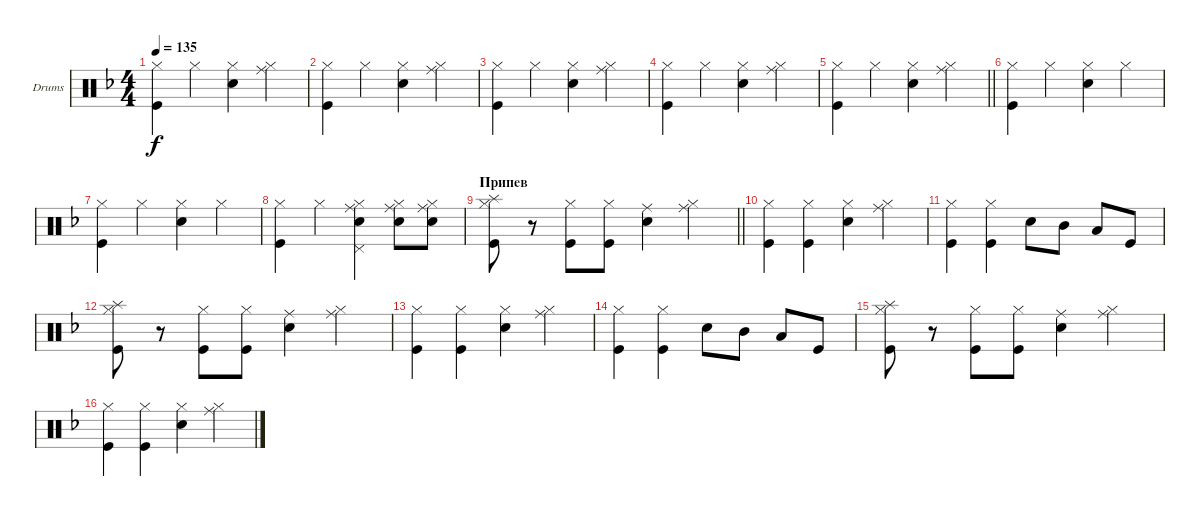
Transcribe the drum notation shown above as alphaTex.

\bracketExtendMode groupsimilarinstruments
\firstSystemTrackNameOrientation horizontal
\otherSystemsTrackNameOrientation horizontal
\track ("Drumkitover" "Drums") {instrument percussion}
\staff {score}
\articulation defaults
\ts (4 4)
\tempo 135
\clef neutral
\scale
0.333333
\ks dminor
("Kick (hit)" "Hi-Hat (closed)").4{dy f} "Hi-Hat (closed)".4 ("Snare (hit) 2" "Hi-Hat (closed)").4 ("Hi-Hat (closed)" "Ride (middle)").4 |
\scale
0.333333 ("Kick (hit)" "Hi-Hat (closed)").4 "Hi-Hat (closed)".4 ("Snare (hit) 2" "Hi-Hat (closed)").4 ("Hi-Hat (closed)" "Ride (middle)").4 |
\scale
0.333333 ("Kick (hit)" "Hi-Hat (closed)").4 "Hi-Hat (closed)".4 ("Snare (hit) 2" "Hi-Hat (closed)").4 ("Hi-Hat (closed)" "Ride (middle)").4 |
\scale
0.333333 ("Kick (hit)" "Hi-Hat (closed)").4 "Hi-Hat (closed)".4 ("Snare (hit) 2" "Hi-Hat (closed)").4 ("Hi-Hat (closed)" "Ride (middle)").4 |
\scale
0.333333
\barLineRight lightlight
("Kick (hit)" "Hi-Hat (closed)").4 "Hi-Hat (closed)".4 ("Snare (hit) 2" "Hi-Hat (closed)").4 ("Hi-Hat (closed)" "Ride (middle)").4 |
\scale
0.333333 ("Kick (hit)" "Hi-Hat (closed)").4 "Hi-Hat (closed)".4 ("Snare (hit) 2" "Hi-Hat (closed)").4 "Hi-Hat (closed)".4 |
\scale
0.333333 ("Kick (hit)" "Hi-Hat (closed)").4 "Hi-Hat (closed)".4 ("Snare (hit) 2" "Hi-Hat (closed)").4 "Hi-Hat (closed)".4 |
\scale
0.333333 ("Kick (hit)" "Hi-Hat (closed)").4 "Hi-Hat (closed)".4 ("Ride (middle)" "Snare (hit) 2" "Hi-Hat (closed)" "Pedal Hi-Hat (hit)").4 ("Hi-Hat (closed)" "Snare (hit) 2" "Ride (middle)").8 ("Hi-Hat (closed)" "Snare (hit) 2" "Ride (middle)").8 |
\section ("" "Припев")
\scale
0.333333
\barLineRight lightlight
("Hi-Hat (closed)" "Kick (hit)" "Splash (hit)").8 r.8 ("Hi-Hat (closed)" "Kick (hit)").8 ("Hi-Hat (closed)" "Kick (hit)").8 ("Snare (hit) 2" "Ride (middle)").4 ("Hi-Hat (closed)" "Ride (middle)").4 |
\scale
0.333333 ("Hi-Hat (closed)" "Kick (hit)").4 ("Hi-Hat (closed)" "Kick (hit)").4 ("Snare (hit) 2" "Hi-Hat (closed)").4 ("Hi-Hat (closed)" "Ride (middle)").4 |
\scale
0.333333 ("Hi-Hat (closed)" "Kick (hit)").4 ("Hi-Hat (closed)" "Kick (hit)").4 "Snare (hit) 2".8 "Mid Tom (hit)".8 "Low Tom (hit)".8 "Kick (hit)".8 |
\scale
0.333333 ("Hi-Hat (closed)" "Kick (hit)" "Splash (hit)").8 r.8 ("Hi-Hat (closed)" "Kick (hit)").8 ("Hi-Hat (closed)" "Kick (hit)").8 ("Snare (hit) 2" "Ride (middle)").4 ("Hi-Hat (closed)" "Ride (middle)").4 |
\scale
0.333333 ("Hi-Hat (closed)" "Kick (hit)").4 ("Hi-Hat (closed)" "Kick (hit)").4 ("Snare (hit) 2" "Hi-Hat (closed)").4 ("Hi-Hat (closed)" "Ride (middle)").4 |
\scale
0.333333 ("Hi-Hat (closed)" "Kick (hit)").4 ("Hi-Hat (closed)" "Kick (hit)").4 "Snare (hit) 2".8 "Mid Tom (hit)".8 "Low Tom (hit)".8 "Kick (hit)".8 |
\scale
0.333333 ("Hi-Hat (closed)" "Kick (hit)" "Splash (hit)").8 r.8 ("Hi-Hat (closed)" "Kick (hit)").8 ("Hi-Hat (closed)" "Kick (hit)").8 ("Snare (hit) 2" "Ride (middle)").4 ("Hi-Hat (closed)" "Ride (middle)").4 |
\scale
0.333333 ("Hi-Hat (closed)" "Kick (hit)").4 ("Hi-Hat (closed)" "Kick (hit)").4 ("Snare (hit) 2" "Hi-Hat (closed)").4 ("Hi-Hat (closed)" "Ride (middle)").4
